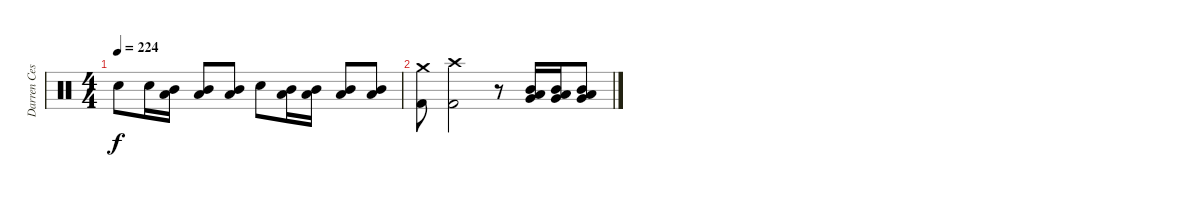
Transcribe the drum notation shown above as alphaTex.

\track ("Darren Cesca" "Darren Ces") {instrument percussion}
\staff {score}
\articulation defaults
\ts (4 4)
\tempo 224
\clef neutral
\ks c "Electric Snare (hit)".8{dy f} "Electric Snare (hit)".16
("Mid Tom (hit)" "Low Tom (hit)").16 ("Mid Tom (hit)" "Low Tom (hit)").8 ("Mid Tom (hit)" "Low Tom (hit)").8 "Electric Snare (hit)".8 ("Mid Tom (hit)" "Low Tom (hit)").16 ("Mid Tom (hit)" "Low Tom (hit)").16 ("Mid Tom (hit)" "Low Tom (hit)").8 ("Mid Tom (hit)" "Low Tom (hit)").8 |
("Crash medium (hit)" "Kick (hit) 2").8 ("Crash high (hit)" "Kick (hit) 2").2 r.8 ("Mid Tom (hit)" "Low Tom (hit)" "Very Low Tom (hit)").16 ("Mid Tom (hit)" "Low Tom (hit)" "Very Low Tom (hit)").16 ("Mid Tom (hit)" "Low Tom (hit)" "Very Low Tom (hit)").8
